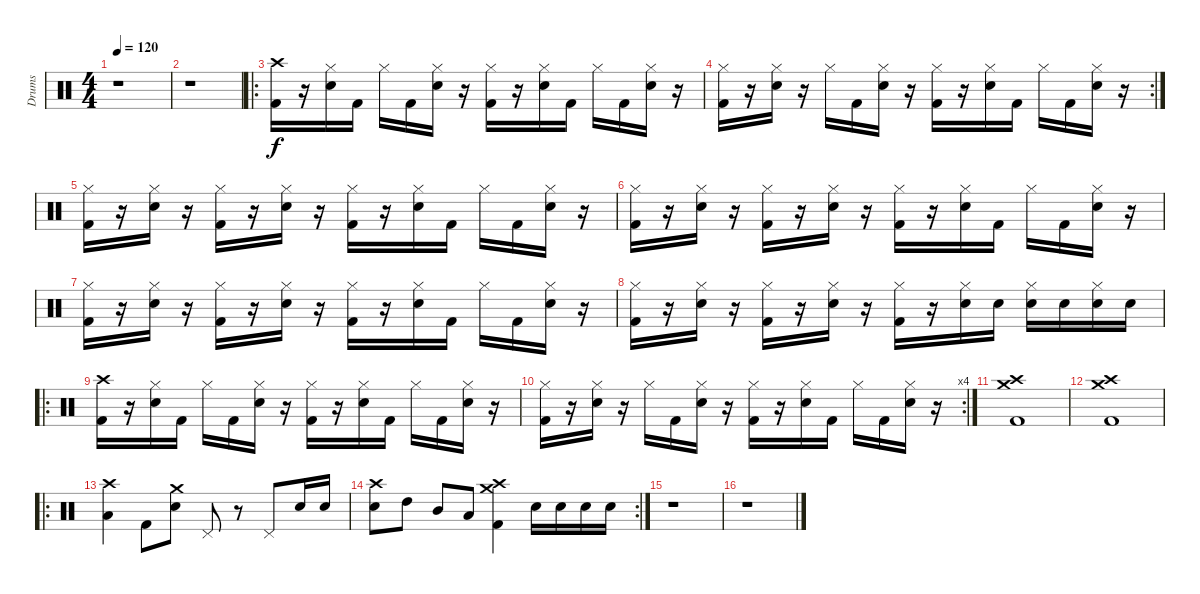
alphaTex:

\track ("Drums" "Drums") {instrument percussion}
\staff {score}
\articulation defaults
\ts (4 4)
\tempo 120
\clef neutral
\ks c
r.1{dy f} |
r.1 |
\ro
("Crash high (hit)" "Kick (hit) 2").16 r.16 ("Hi-Hat (closed)" "Snare (hit) 2").16 "Kick (hit) 2".16 "Hi-Hat (closed)".16 "Kick (hit) 2".16 ("Hi-Hat (closed)" "Snare (hit) 2").16 r.16 ("Hi-Hat (closed)" "Kick (hit) 2").16 r.16 ("Hi-Hat (closed)" "Snare (hit) 2").16 "Kick (hit) 2".16 "Hi-Hat (closed)".16 "Kick (hit) 2".16 ("Hi-Hat (closed)" "Snare (hit) 2").16 r.16 |
\rc 2
("Hi-Hat (closed)" "Kick (hit) 2").16 r.16 ("Hi-Hat (closed)" "Snare (hit) 2").16 r.16 "Hi-Hat (closed)".16 "Kick (hit) 2".16 ("Hi-Hat (closed)" "Snare (hit) 2").16 r.16 ("Hi-Hat (closed)" "Kick (hit) 2").16 r.16 ("Hi-Hat (closed)" "Snare (hit) 2").16 "Kick (hit) 2".16 "Hi-Hat (closed)".16 "Kick (hit) 2".16 ("Hi-Hat (closed)" "Snare (hit) 2").16 r.16 |
("Hi-Hat (closed)" "Kick (hit) 2").16 r.16 ("Hi-Hat (closed)" "Snare (hit) 2").16 r.16 ("Hi-Hat (closed)" "Kick (hit) 2").16 r.16 ("Hi-Hat (closed)" "Snare (hit) 2").16 r.16 ("Hi-Hat (closed)" "Kick (hit) 2").16 r.16 ("Hi-Hat (closed)" "Snare (hit) 2").16 "Kick (hit) 2".16 "Hi-Hat (closed)".16 "Kick (hit) 2".16 ("Hi-Hat (closed)" "Snare (hit) 2").16 r.16 |
("Hi-Hat (closed)" "Kick (hit) 2").16 r.16 ("Hi-Hat (closed)" "Snare (hit) 2").16 r.16 ("Hi-Hat (closed)" "Kick (hit) 2").16 r.16 ("Hi-Hat (closed)" "Snare (hit) 2").16 r.16 ("Hi-Hat (closed)" "Kick (hit) 2").16 r.16 ("Hi-Hat (closed)" "Snare (hit) 2").16 "Kick (hit) 2".16 "Hi-Hat (closed)".16 "Kick (hit) 2".16 ("Hi-Hat (closed)" "Snare (hit) 2").16 r.16 |
("Hi-Hat (closed)" "Kick (hit) 2").16 r.16 ("Hi-Hat (closed)" "Snare (hit) 2").16 r.16 ("Hi-Hat (closed)" "Kick (hit) 2").16 r.16 ("Hi-Hat (closed)" "Snare (hit) 2").16 r.16 ("Hi-Hat (closed)" "Kick (hit) 2").16 r.16 ("Hi-Hat (closed)" "Snare (hit) 2").16 "Kick (hit) 2".16 "Hi-Hat (closed)".16 "Kick (hit) 2".16 ("Hi-Hat (closed)" "Snare (hit) 2").16 r.16 |
("Hi-Hat (closed)" "Kick (hit) 2").16 r.16 ("Hi-Hat (closed)" "Snare (hit) 2").16 r.16 ("Hi-Hat (closed)" "Kick (hit) 2").16 r.16 ("Hi-Hat (closed)" "Snare (hit) 2").16 r.16 ("Hi-Hat (closed)" "Kick (hit) 2").16 r.16 ("Hi-Hat (closed)" "Snare (hit) 2").16 "Snare (hit) 2".16 ("Hi-Hat (closed)" "Snare (hit) 2").16 "Snare (hit) 2".16 ("Hi-Hat (closed)" "Snare (hit) 2").16 "Snare (hit) 2".16 |
\ro
("Crash high (hit)" "Kick (hit) 2").16 r.16 ("Hi-Hat (closed)" "Snare (hit) 2").16 "Kick (hit) 2".16 "Hi-Hat (closed)".16 "Kick (hit) 2".16 ("Hi-Hat (closed)" "Snare (hit) 2").16 r.16 ("Hi-Hat (closed)" "Kick (hit) 2").16 r.16 ("Hi-Hat (closed)" "Snare (hit) 2").16 "Kick (hit) 2".16 "Hi-Hat (closed)".16 "Kick (hit) 2".16 ("Hi-Hat (closed)" "Snare (hit) 2").16 r.16 |
\rc 4
("Hi-Hat (closed)" "Kick (hit) 2").16 r.16 ("Hi-Hat (closed)" "Snare (hit) 2").16 r.16 "Hi-Hat (closed)".16 "Kick (hit) 2".16 ("Hi-Hat (closed)" "Snare (hit) 2").16 r.16 ("Hi-Hat (closed)" "Kick (hit) 2").16 r.16 ("Hi-Hat (closed)" "Snare (hit) 2").16 "Kick (hit) 2".16 "Hi-Hat (closed)".16 "Kick (hit) 2".16 ("Hi-Hat (closed)" "Snare (hit) 2").16 r.16 |
("Crash high (hit)" "Crash medium (hit)" "Kick (hit) 2").1 |
("Crash high (hit)" "Crash medium (hit)" "Kick (hit) 2").1 |
\ro
("Crash high (hit)" "Low Floor Tom (hit)").4 "Kick (hit) 2".8 ("Crash medium (hit)" "Snare (hit) 2").8 "Pedal Hi-Hat (hit)".8 r.8 "Pedal Hi-Hat (hit)".8 "Snare (hit) 2".16 "Snare (hit) 2".16 |
\rc 2
("Crash high (hit)" "Snare (hit) 2").8 "High Tom (hit)".8 "Mid Tom (hit)".8 "Low Floor Tom (hit)".8 ("Crash high (hit)" "Crash medium (hit)" "Kick (hit) 2").4 "Snare (hit) 2".16 "Snare (hit) 2".16 "Snare (hit) 2".16 "Snare (hit) 2".16 |
r.1 |
r.1
